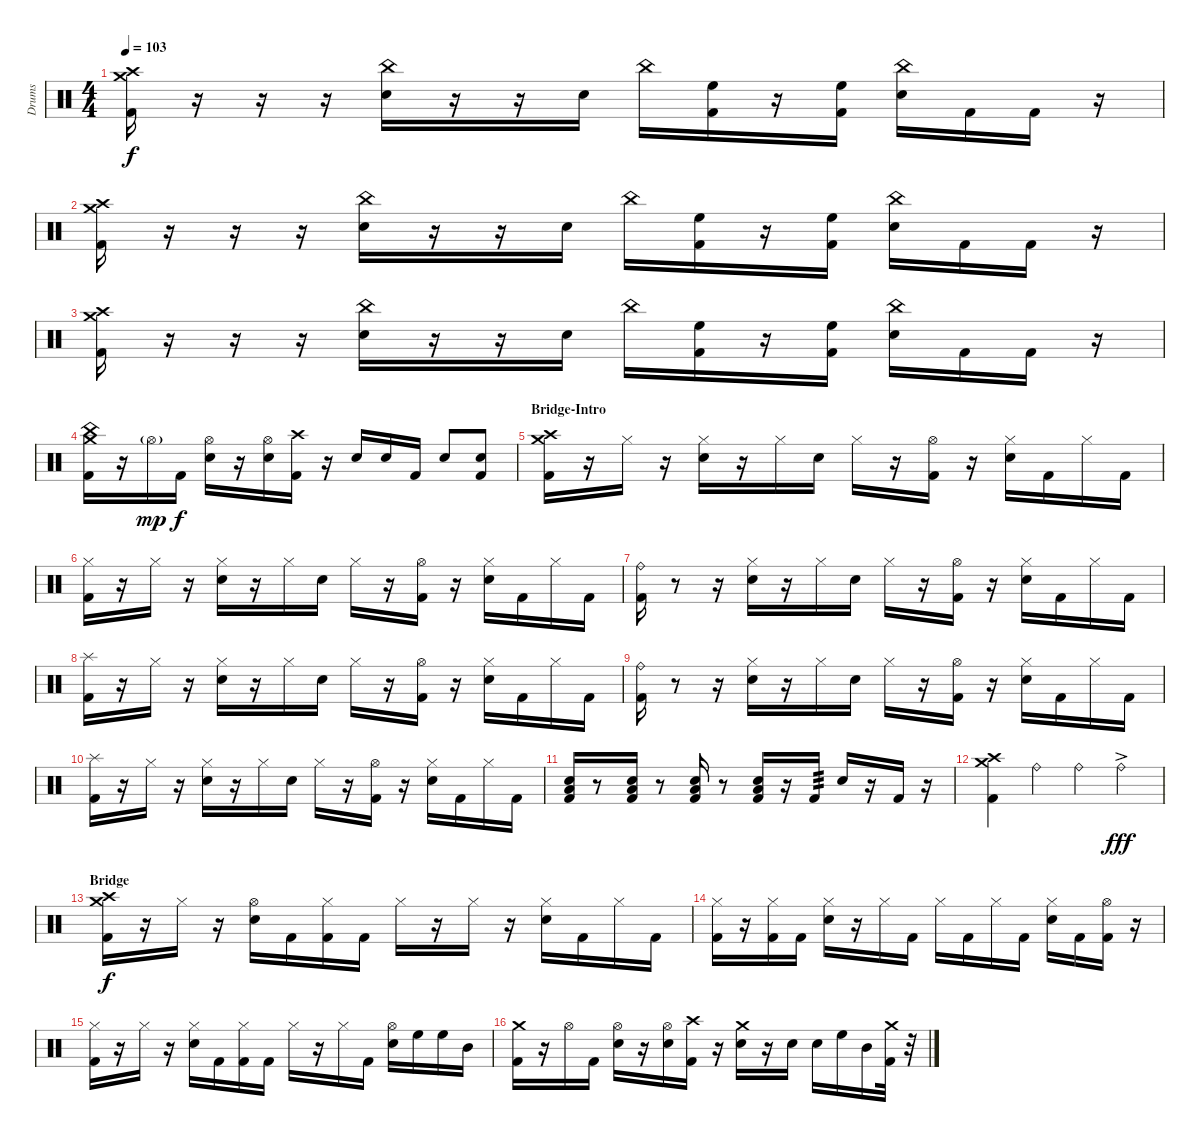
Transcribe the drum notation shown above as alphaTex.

\track ("Drums" "Drums") {instrument percussion}
\staff {score}
\articulation defaults
\ts (4 4)
\tempo 103
\clef neutral
\ks c
("Crash medium (hit)" "Crash high (hit)" "Kick (hit) 2").16{dy f} r.16 r.16 r.16 ("China (hit)" "Snare (hit) 2").16 r.16 r.16 "Snare (hit) 2".16 "China (hit)".16 ("High Floor Tom (hit)" "Kick (hit) 2").16 r.16 ("High Floor Tom (hit)" "Kick (hit) 2").16 ("China (hit)" "Snare (hit) 2").16 "Kick (hit) 2".16 "Kick (hit) 2".16 r.16 |
("Crash medium (hit)" "Crash high (hit)" "Kick (hit) 2").16 r.16 r.16 r.16 ("China (hit)" "Snare (hit) 2").16 r.16 r.16 "Snare (hit) 2".16 "China (hit)".16 ("High Floor Tom (hit)" "Kick (hit) 2").16 r.16 ("High Floor Tom (hit)" "Kick (hit) 2").16 ("China (hit)" "Snare (hit) 2").16 "Kick (hit) 2".16 "Kick (hit) 2".16 r.16 |
("Crash medium (hit)" "Crash high (hit)" "Kick (hit) 2").16 r.16 r.16 r.16 ("China (hit)" "Snare (hit) 2").16 r.16 r.16 "Snare (hit) 2".16 "China (hit)".16 ("High Floor Tom (hit)" "Kick (hit) 2").16 r.16 ("High Floor Tom (hit)" "Kick (hit) 2").16 ("China (hit)" "Snare (hit) 2").16 "Kick (hit) 2".16 "Kick (hit) 2".16 r.16 |
("Crash medium (hit)" "China (hit)" "Kick (hit) 2").16 r.16 "Hi-Hat (open)"{g}.16{dy mp} "Kick (hit) 2".16{dy f} ("Hi-Hat (open)" "Snare (hit) 2").16 r.16 ("Hi-Hat (open)" "Snare (hit) 2").16 ("Crash high (hit)" "Kick (hit) 2").16 r.16 "Snare (hit) 2".16 "Snare (hit) 2".16 "Kick (hit) 2".16 "Snare (hit) 2".8 ("Snare (hit) 2" "Kick (hit) 2").8 |
\section ("" "Bridge-Intro")
("Crash high (hit)" "Crash medium (hit)" "Kick (hit) 2").16 r.16 "Hi-Hat (closed)".16 r.16 ("Hi-Hat (closed)" "Snare (hit) 2").16 r.16 "Hi-Hat (closed)".16 "Snare (hit) 2".16 "Hi-Hat (closed)".16 r.16 ("Hi-Hat (open)" "Kick (hit) 2").16 r.16 ("Hi-Hat (closed)" "Snare (hit) 2").16 "Kick (hit) 2".16 "Hi-Hat (closed)".16 "Kick (hit) 2".16 |
("Hi-Hat (closed)" "Kick (hit) 2").16 r.16 "Hi-Hat (closed)".16 r.16 ("Hi-Hat (closed)" "Snare (hit) 2").16 r.16 "Hi-Hat (closed)".16 "Snare (hit) 2".16 "Hi-Hat (closed)".16 r.16 ("Hi-Hat (open)" "Kick (hit) 2").16 r.16 ("Hi-Hat (closed)" "Snare (hit) 2").16 "Kick (hit) 2".16 "Hi-Hat (closed)".16 "Kick (hit) 2".16 |
("Ride (bell)" "Kick (hit) 2").16 r.8 r.16 ("Hi-Hat (closed)" "Snare (hit) 2").16 r.16 "Hi-Hat (closed)".16 "Snare (hit) 2".16 "Hi-Hat (closed)".16 r.16 ("Hi-Hat (open)" "Kick (hit) 2").16 r.16 ("Hi-Hat (closed)" "Snare (hit) 2").16 "Kick (hit) 2".16 "Hi-Hat (closed)".16 "Kick (hit) 2".16 |
("Splash (hit)" "Kick (hit) 2").16 r.16 "Hi-Hat (closed)".16 r.16 ("Hi-Hat (closed)" "Snare (hit) 2").16 r.16 "Hi-Hat (closed)".16 "Snare (hit) 2".16 "Hi-Hat (closed)".16 r.16 ("Hi-Hat (open)" "Kick (hit) 2").16 r.16 ("Hi-Hat (closed)" "Snare (hit) 2").16 "Kick (hit) 2".16 "Hi-Hat (closed)".16 "Kick (hit) 2".16 |
("Ride (bell)" "Kick (hit) 2").16 r.8 r.16 ("Hi-Hat (closed)" "Snare (hit) 2").16 r.16 "Hi-Hat (closed)".16 "Snare (hit) 2".16 "Hi-Hat (closed)".16 r.16 ("Hi-Hat (open)" "Kick (hit) 2").16 r.16 ("Hi-Hat (closed)" "Snare (hit) 2").16 "Kick (hit) 2".16 "Hi-Hat (closed)".16 "Kick (hit) 2".16 |
("Splash (hit)" "Kick (hit) 2").16 r.16 "Hi-Hat (closed)".16 r.16 ("Hi-Hat (closed)" "Snare (hit) 2").16 r.16 "Hi-Hat (closed)".16 "Snare (hit) 2".16 "Hi-Hat (closed)".16 r.16 ("Hi-Hat (open)" "Kick (hit) 2").16 r.16 ("Hi-Hat (closed)" "Snare (hit) 2").16 "Kick (hit) 2".16 "Hi-Hat (closed)".16 "Kick (hit) 2".16 |
("Snare (hit) 2" "Low Floor Tom (hit)" "Kick (hit) 2").16 r.8 ("Snare (hit) 2" "Low Floor Tom (hit)" "Kick (hit) 2").16 r.8 ("Snare (hit) 2" "Low Floor Tom (hit)" "Kick (hit) 2").16 r.8 ("Snare (hit) 2" "Low Floor Tom (hit)" "Kick (hit) 2").16 r.16 "Kick (hit) 2".16{tp 3} "Snare (hit) 2".16 r.16 "Kick (hit) 2".16 r.16 |
("Crash high (hit)" "Crash medium (hit)" "Kick (hit) 2").4 "Ride (bell)".4 "Ride (bell)".4 "Ride (bell)"{ac}.4{dy fff} |
\section ("" "Bridge")
("Crash high (hit)" "Crash medium (hit)" "Kick (hit) 2").16{dy f} r.16 "Hi-Hat (closed)".16 r.16 ("Hi-Hat (open)" "Snare (hit) 2").16 "Kick (hit) 2".16 ("Hi-Hat (closed)" "Kick (hit) 2").16 "Kick (hit) 2".16 "Hi-Hat (closed)".16 r.16 "Hi-Hat (closed)".16 r.16 ("Hi-Hat (closed)" "Snare (hit) 2").16 "Kick (hit) 2".16 "Hi-Hat (closed)".16 "Kick (hit) 2".16 |
("Hi-Hat (closed)" "Kick (hit) 2").16 r.16 ("Hi-Hat (closed)" "Kick (hit) 2").16 "Kick (hit) 2".16 ("Hi-Hat (closed)" "Snare (hit) 2").16 r.16 "Hi-Hat (closed)".16 "Kick (hit) 2".16 "Hi-Hat (closed)".16 "Kick (hit) 2".16 "Hi-Hat (closed)".16 "Kick (hit) 2".16 ("Hi-Hat (closed)" "Snare (hit) 2").16 "Kick (hit) 2".16 ("Hi-Hat (open)" "Kick (hit) 2").16 r.16 |
("Hi-Hat (closed)" "Kick (hit) 2").16 r.16 "Hi-Hat (closed)".16 r.16 ("Hi-Hat (closed)" "Snare (hit) 2").16 "Kick (hit) 2".16 ("Hi-Hat (closed)" "Kick (hit) 2").16 "Kick (hit) 2".16 "Hi-Hat (closed)".16 r.16 "Hi-Hat (closed)".16 "Kick (hit) 2".16 ("Hi-Hat (open)" "Snare (hit) 2").16 "High Floor Tom (hit)".16 "High Floor Tom (hit)".16 "Mid Tom (hit)".16 |
("Crash medium (hit)" "Kick (hit) 2").16 r.16 "Hi-Hat (open)".16 "Kick (hit) 2".16 ("Hi-Hat (open)" "Snare (hit) 2").16 r.16 ("Hi-Hat (open)" "Snare (hit) 2").16 ("Crash high (hit)" "Kick (hit) 2").16 r.16 ("Crash medium (hit)" "Snare (hit) 2").16 r.16 "Snare (hit) 2".16 "Snare (hit) 2".16 "High Floor Tom (hit)".16 "Mid Tom (hit)".16 ("Crash medium (hit)" "Kick (hit) 2").32 r.32
